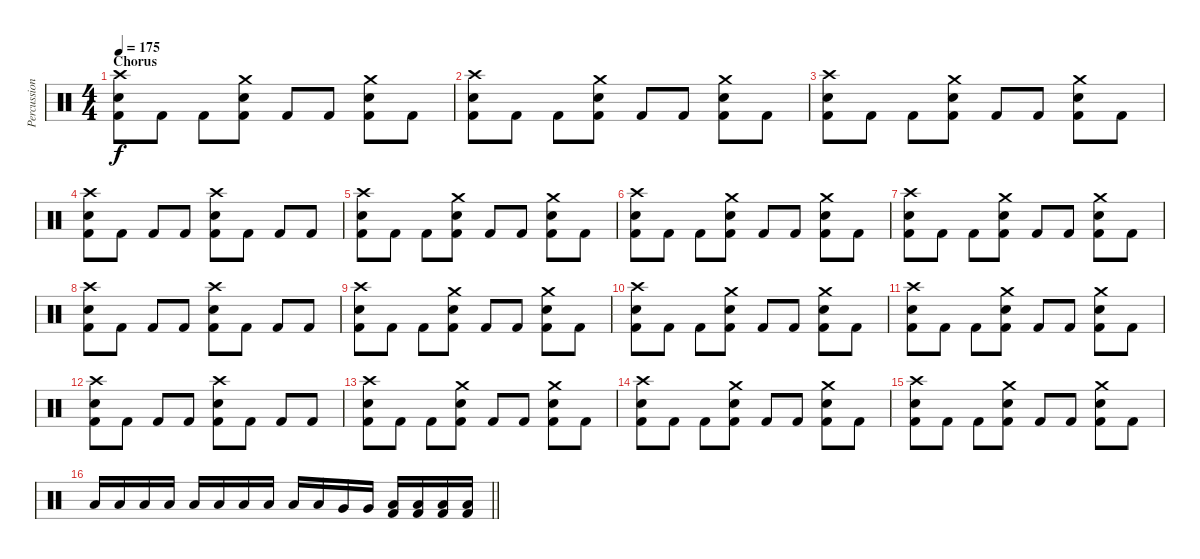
\track ("Percussion" "Percussion") {instrument percussion}
\staff {score}
\articulation defaults
\ts (4 4)
\section ("" "Chorus")
\tempo 175
\clef neutral
\ks c
("Crash high (hit)" "Snare (hit) 2" "Kick (hit) 2").8{dy f} "Kick (hit) 2".8 "Kick (hit) 2".8 ("Crash medium (hit)" "Snare (hit) 2" "Kick (hit) 2").8 "Kick (hit) 2".8 "Kick (hit) 2".8 ("Crash medium (hit)" "Snare (hit) 2" "Kick (hit) 2").8 "Kick (hit) 2".8 |
("Crash high (hit)" "Snare (hit) 2" "Kick (hit) 2").8 "Kick (hit) 2".8 "Kick (hit) 2".8 ("Crash medium (hit)" "Snare (hit) 2" "Kick (hit) 2").8 "Kick (hit) 2".8 "Kick (hit) 2".8 ("Crash medium (hit)" "Snare (hit) 2" "Kick (hit) 2").8 "Kick (hit) 2".8 |
("Crash high (hit)" "Snare (hit) 2" "Kick (hit) 2").8 "Kick (hit) 2".8 "Kick (hit) 2".8 ("Crash medium (hit)" "Snare (hit) 2" "Kick (hit) 2").8 "Kick (hit) 2".8 "Kick (hit) 2".8 ("Crash medium (hit)" "Snare (hit) 2" "Kick (hit) 2").8 "Kick (hit) 2".8 |
("Crash high (hit)" "Snare (hit) 2" "Kick (hit) 2").8 "Kick (hit) 2".8 "Kick (hit) 2".8 "Kick (hit) 2".8 ("Crash high (hit)" "Snare (hit) 2" "Kick (hit) 2").8 "Kick (hit) 2".8 "Kick (hit) 2".8 "Kick (hit) 2".8 |
("Crash high (hit)" "Snare (hit) 2" "Kick (hit) 2").8 "Kick (hit) 2".8 "Kick (hit) 2".8 ("Crash medium (hit)" "Snare (hit) 2" "Kick (hit) 2").8 "Kick (hit) 2".8 "Kick (hit) 2".8 ("Crash medium (hit)" "Snare (hit) 2" "Kick (hit) 2").8 "Kick (hit) 2".8 |
("Crash high (hit)" "Snare (hit) 2" "Kick (hit) 2").8 "Kick (hit) 2".8 "Kick (hit) 2".8 ("Crash medium (hit)" "Snare (hit) 2" "Kick (hit) 2").8 "Kick (hit) 2".8 "Kick (hit) 2".8 ("Crash medium (hit)" "Snare (hit) 2" "Kick (hit) 2").8 "Kick (hit) 2".8 |
("Crash high (hit)" "Snare (hit) 2" "Kick (hit) 2").8 "Kick (hit) 2".8 "Kick (hit) 2".8 ("Crash medium (hit)" "Snare (hit) 2" "Kick (hit) 2").8 "Kick (hit) 2".8 "Kick (hit) 2".8 ("Crash medium (hit)" "Snare (hit) 2" "Kick (hit) 2").8 "Kick (hit) 2".8 |
("Crash high (hit)" "Snare (hit) 2" "Kick (hit) 2").8 "Kick (hit) 2".8 "Kick (hit) 2".8 "Kick (hit) 2".8 ("Crash high (hit)" "Snare (hit) 2" "Kick (hit) 2").8 "Kick (hit) 2".8 "Kick (hit) 2".8 "Kick (hit) 2".8 |
("Crash high (hit)" "Snare (hit) 2" "Kick (hit) 2").8 "Kick (hit) 2".8 "Kick (hit) 2".8 ("Crash medium (hit)" "Snare (hit) 2" "Kick (hit) 2").8 "Kick (hit) 2".8 "Kick (hit) 2".8 ("Crash medium (hit)" "Snare (hit) 2" "Kick (hit) 2").8 "Kick (hit) 2".8 |
("Crash high (hit)" "Snare (hit) 2" "Kick (hit) 2").8 "Kick (hit) 2".8 "Kick (hit) 2".8 ("Crash medium (hit)" "Snare (hit) 2" "Kick (hit) 2").8 "Kick (hit) 2".8 "Kick (hit) 2".8 ("Crash medium (hit)" "Snare (hit) 2" "Kick (hit) 2").8 "Kick (hit) 2".8 |
("Crash high (hit)" "Snare (hit) 2" "Kick (hit) 2").8 "Kick (hit) 2".8 "Kick (hit) 2".8 ("Crash medium (hit)" "Snare (hit) 2" "Kick (hit) 2").8 "Kick (hit) 2".8 "Kick (hit) 2".8 ("Crash medium (hit)" "Snare (hit) 2" "Kick (hit) 2").8 "Kick (hit) 2".8 |
("Crash high (hit)" "Snare (hit) 2" "Kick (hit) 2").8 "Kick (hit) 2".8 "Kick (hit) 2".8 "Kick (hit) 2".8 ("Crash high (hit)" "Snare (hit) 2" "Kick (hit) 2").8 "Kick (hit) 2".8 "Kick (hit) 2".8 "Kick (hit) 2".8 |
("Crash high (hit)" "Snare (hit) 2" "Kick (hit) 2").8 "Kick (hit) 2".8 "Kick (hit) 2".8 ("Crash medium (hit)" "Snare (hit) 2" "Kick (hit) 2").8 "Kick (hit) 2".8 "Kick (hit) 2".8 ("Crash medium (hit)" "Snare (hit) 2" "Kick (hit) 2").8 "Kick (hit) 2".8 |
("Crash high (hit)" "Snare (hit) 2" "Kick (hit) 2").8 "Kick (hit) 2".8 "Kick (hit) 2".8 ("Crash medium (hit)" "Snare (hit) 2" "Kick (hit) 2").8 "Kick (hit) 2".8 "Kick (hit) 2".8 ("Crash medium (hit)" "Snare (hit) 2" "Kick (hit) 2").8 "Kick (hit) 2".8 |
("Crash high (hit)" "Snare (hit) 2" "Kick (hit) 2").8 "Kick (hit) 2".8 "Kick (hit) 2".8 ("Crash medium (hit)" "Snare (hit) 2" "Kick (hit) 2").8 "Kick (hit) 2".8 "Kick (hit) 2".8 ("Crash medium (hit)" "Snare (hit) 2" "Kick (hit) 2").8 "Kick (hit) 2".8 |
\barLineRight lightlight "Low Tom (hit)".16 "Low Tom (hit)".16 "Low Tom (hit)".16 "Low Tom (hit)".16 "Low Tom (hit)".16 "Low Tom (hit)".16 "Low Tom (hit)".16 "Low Tom (hit)".16 "Low Tom (hit)".16 "Low Tom (hit)".16 "Very Low Tom (hit)".16 "Very Low Tom (hit)".16
("Low Floor Tom (hit)" "Kick (hit) 2").16 ("Low Floor Tom (hit)" "Kick (hit) 2").16 ("Low Tom (hit)" "Kick (hit) 2").16 ("Low Tom (hit)" "Kick (hit) 2").16
